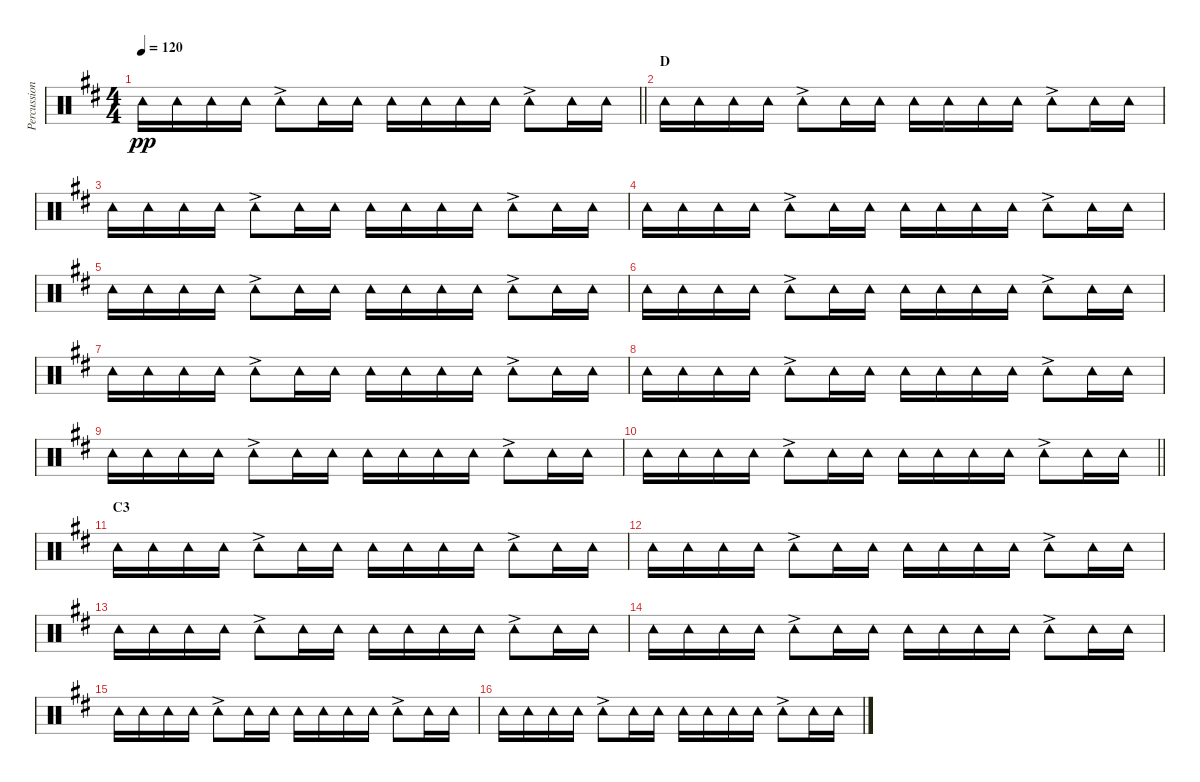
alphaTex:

\track ("Percussion (Tainaka Ritsu)" "Percussion") {instrument percussion}
\staff {score}
\articulation defaults
\ts (4 4)
\tempo 120
\clef neutral
\barLineRight lightlight
\ks d "Tambourine (hit)".16{dy pp} "Tambourine (hit)".16 "Tambourine (hit)".16 "Tambourine (hit)".16 "Tambourine (hit)"{ac}.8 "Tambourine (hit)".16 "Tambourine (hit)".16 "Tambourine (hit)".16 "Tambourine (hit)".16 "Tambourine (hit)".16 "Tambourine (hit)".16 "Tambourine (hit)"{ac}.8 "Tambourine (hit)".16 "Tambourine (hit)".16
|
\section ("" "D")
"Tambourine (hit)".16 "Tambourine (hit)".16 "Tambourine (hit)".16 "Tambourine (hit)".16 "Tambourine (hit)"{ac}.8 "Tambourine (hit)".16 "Tambourine (hit)".16 "Tambourine (hit)".16 "Tambourine (hit)".16 "Tambourine (hit)".16 "Tambourine (hit)".16 "Tambourine (hit)"{ac}.8 "Tambourine (hit)".16 "Tambourine (hit)".16 |
"Tambourine (hit)".16 "Tambourine (hit)".16 "Tambourine (hit)".16 "Tambourine (hit)".16 "Tambourine (hit)"{ac}.8 "Tambourine (hit)".16 "Tambourine (hit)".16 "Tambourine (hit)".16 "Tambourine (hit)".16 "Tambourine (hit)".16 "Tambourine (hit)".16 "Tambourine (hit)"{ac}.8 "Tambourine (hit)".16 "Tambourine (hit)".16 |
"Tambourine (hit)".16 "Tambourine (hit)".16 "Tambourine (hit)".16 "Tambourine (hit)".16 "Tambourine (hit)"{ac}.8 "Tambourine (hit)".16 "Tambourine (hit)".16 "Tambourine (hit)".16 "Tambourine (hit)".16 "Tambourine (hit)".16 "Tambourine (hit)".16 "Tambourine (hit)"{ac}.8 "Tambourine (hit)".16 "Tambourine (hit)".16 |
"Tambourine (hit)".16 "Tambourine (hit)".16 "Tambourine (hit)".16 "Tambourine (hit)".16 "Tambourine (hit)"{ac}.8 "Tambourine (hit)".16 "Tambourine (hit)".16 "Tambourine (hit)".16 "Tambourine (hit)".16 "Tambourine (hit)".16 "Tambourine (hit)".16 "Tambourine (hit)"{ac}.8 "Tambourine (hit)".16 "Tambourine (hit)".16 |
"Tambourine (hit)".16 "Tambourine (hit)".16 "Tambourine (hit)".16 "Tambourine (hit)".16 "Tambourine (hit)"{ac}.8 "Tambourine (hit)".16 "Tambourine (hit)".16 "Tambourine (hit)".16 "Tambourine (hit)".16 "Tambourine (hit)".16 "Tambourine (hit)".16 "Tambourine (hit)"{ac}.8 "Tambourine (hit)".16 "Tambourine (hit)".16 |
"Tambourine (hit)".16 "Tambourine (hit)".16 "Tambourine (hit)".16 "Tambourine (hit)".16 "Tambourine (hit)"{ac}.8 "Tambourine (hit)".16 "Tambourine (hit)".16 "Tambourine (hit)".16 "Tambourine (hit)".16 "Tambourine (hit)".16 "Tambourine (hit)".16 "Tambourine (hit)"{ac}.8 "Tambourine (hit)".16 "Tambourine (hit)".16 |
"Tambourine (hit)".16 "Tambourine (hit)".16 "Tambourine (hit)".16 "Tambourine (hit)".16 "Tambourine (hit)"{ac}.8 "Tambourine (hit)".16 "Tambourine (hit)".16 "Tambourine (hit)".16 "Tambourine (hit)".16 "Tambourine (hit)".16 "Tambourine (hit)".16 "Tambourine (hit)"{ac}.8 "Tambourine (hit)".16 "Tambourine (hit)".16 |
"Tambourine (hit)".16 "Tambourine (hit)".16 "Tambourine (hit)".16 "Tambourine (hit)".16 "Tambourine (hit)"{ac}.8 "Tambourine (hit)".16 "Tambourine (hit)".16 "Tambourine (hit)".16 "Tambourine (hit)".16 "Tambourine (hit)".16 "Tambourine (hit)".16 "Tambourine (hit)"{ac}.8 "Tambourine (hit)".16 "Tambourine (hit)".16 |
\barLineRight lightlight "Tambourine (hit)".16 "Tambourine (hit)".16 "Tambourine (hit)".16 "Tambourine (hit)".16 "Tambourine (hit)"{ac}.8 "Tambourine (hit)".16 "Tambourine (hit)".16 "Tambourine (hit)".16 "Tambourine (hit)".16 "Tambourine (hit)".16 "Tambourine (hit)".16 "Tambourine (hit)"{ac}.8 "Tambourine (hit)".16 "Tambourine (hit)".16
|
\section ("" "C3")
"Tambourine (hit)".16 "Tambourine (hit)".16 "Tambourine (hit)".16 "Tambourine (hit)".16 "Tambourine (hit)"{ac}.8 "Tambourine (hit)".16 "Tambourine (hit)".16 "Tambourine (hit)".16 "Tambourine (hit)".16 "Tambourine (hit)".16 "Tambourine (hit)".16 "Tambourine (hit)"{ac}.8 "Tambourine (hit)".16 "Tambourine (hit)".16 |
"Tambourine (hit)".16 "Tambourine (hit)".16 "Tambourine (hit)".16 "Tambourine (hit)".16 "Tambourine (hit)"{ac}.8 "Tambourine (hit)".16 "Tambourine (hit)".16 "Tambourine (hit)".16 "Tambourine (hit)".16 "Tambourine (hit)".16 "Tambourine (hit)".16 "Tambourine (hit)"{ac}.8 "Tambourine (hit)".16 "Tambourine (hit)".16 |
"Tambourine (hit)".16 "Tambourine (hit)".16 "Tambourine (hit)".16 "Tambourine (hit)".16 "Tambourine (hit)"{ac}.8 "Tambourine (hit)".16 "Tambourine (hit)".16 "Tambourine (hit)".16 "Tambourine (hit)".16 "Tambourine (hit)".16 "Tambourine (hit)".16 "Tambourine (hit)"{ac}.8 "Tambourine (hit)".16 "Tambourine (hit)".16 |
"Tambourine (hit)".16 "Tambourine (hit)".16 "Tambourine (hit)".16 "Tambourine (hit)".16 "Tambourine (hit)"{ac}.8 "Tambourine (hit)".16 "Tambourine (hit)".16 "Tambourine (hit)".16 "Tambourine (hit)".16 "Tambourine (hit)".16 "Tambourine (hit)".16 "Tambourine (hit)"{ac}.8 "Tambourine (hit)".16 "Tambourine (hit)".16 |
"Tambourine (hit)".16 "Tambourine (hit)".16 "Tambourine (hit)".16 "Tambourine (hit)".16 "Tambourine (hit)"{ac}.8 "Tambourine (hit)".16 "Tambourine (hit)".16 "Tambourine (hit)".16 "Tambourine (hit)".16 "Tambourine (hit)".16 "Tambourine (hit)".16 "Tambourine (hit)"{ac}.8 "Tambourine (hit)".16 "Tambourine (hit)".16 |
"Tambourine (hit)".16 "Tambourine (hit)".16 "Tambourine (hit)".16 "Tambourine (hit)".16 "Tambourine (hit)"{ac}.8 "Tambourine (hit)".16 "Tambourine (hit)".16 "Tambourine (hit)".16 "Tambourine (hit)".16 "Tambourine (hit)".16 "Tambourine (hit)".16 "Tambourine (hit)"{ac}.8 "Tambourine (hit)".16 "Tambourine (hit)".16
